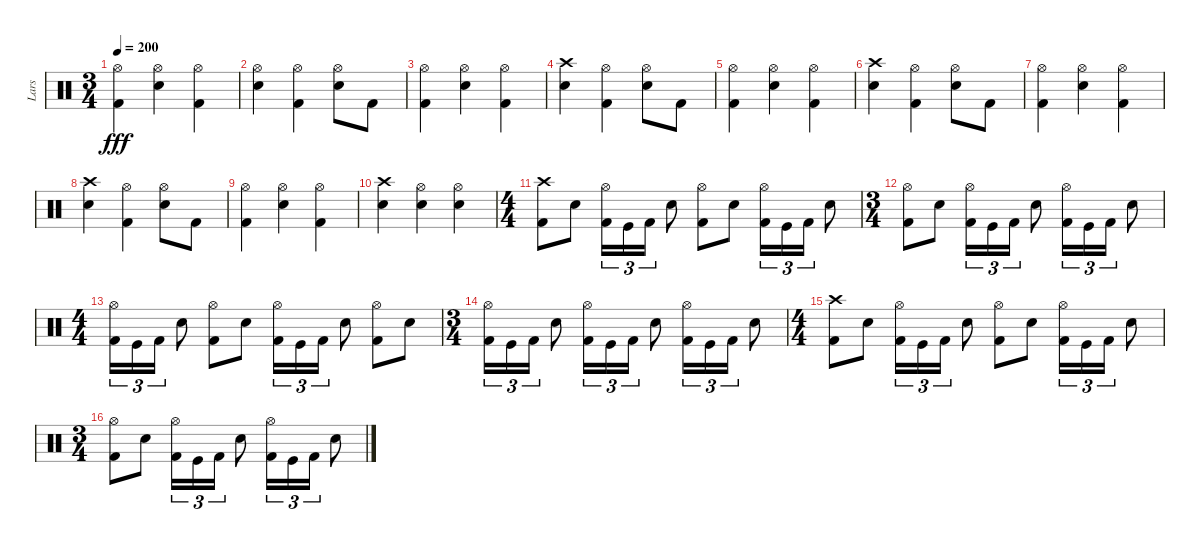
\track ("Lars" "Lars") {instrument percussion}
\staff {score}
\articulation defaults
\ts (3 4)
\tempo 200
\clef neutral
\ks c
("Hi-Hat (open)" "Kick (hit) 2").4{dy fff} ("Hi-Hat (open)" "Snare (hit) 2").4 ("Hi-Hat (open)" "Kick (hit) 2").4 |
("Hi-Hat (open)" "Snare (hit) 2").4 ("Hi-Hat (open)" "Kick (hit) 2").4 ("Hi-Hat (open)" "Snare (hit) 2").8 "Kick (hit) 2".8 |
("Hi-Hat (open)" "Kick (hit) 2").4 ("Hi-Hat (open)" "Snare (hit) 2").4 ("Hi-Hat (open)" "Kick (hit) 2").4 |
("Crash high (hit)" "Snare (hit) 2").4 ("Hi-Hat (open)" "Kick (hit) 2").4 ("Hi-Hat (open)" "Snare (hit) 2").8 "Kick (hit) 2".8 |
("Hi-Hat (open)" "Kick (hit) 2").4 ("Hi-Hat (open)" "Snare (hit) 2").4 ("Hi-Hat (open)" "Kick (hit) 2").4 |
("Crash high (hit)" "Snare (hit) 2").4 ("Hi-Hat (open)" "Kick (hit) 2").4 ("Hi-Hat (open)" "Snare (hit) 2").8 "Kick (hit) 2".8 |
("Hi-Hat (open)" "Kick (hit) 2").4 ("Hi-Hat (open)" "Snare (hit) 2").4 ("Hi-Hat (open)" "Kick (hit) 2").4 |
("Crash high (hit)" "Snare (hit) 2").4 ("Hi-Hat (open)" "Kick (hit) 2").4 ("Hi-Hat (open)" "Snare (hit) 2").8 "Kick (hit) 2".8 |
("Hi-Hat (open)" "Kick (hit) 2").4 ("Hi-Hat (open)" "Snare (hit) 2").4 ("Hi-Hat (open)" "Kick (hit) 2").4 |
("Crash high (hit)" "Snare (hit) 2").4 ("Hi-Hat (open)" "Snare (hit) 2").4 ("Hi-Hat (open)" "Snare (hit) 2").4 |
\ts (4 4)
("Crash high (hit)" "Kick (hit) 2").8 "Snare (hit) 2".8 ("Hi-Hat (open)" "Kick (hit) 2").16{tu (3 2)} "Kick (hit)".16{tu (3 2)} "Kick (hit) 2".16{tu (3 2)} "Snare (hit) 2".8 ("Hi-Hat (open)" "Kick (hit) 2").8 "Snare (hit) 2".8 ("Hi-Hat (open)" "Kick (hit) 2").16{tu (3 2)} "Kick (hit)".16{tu (3 2)} "Kick (hit) 2".16{tu (3 2)} "Snare (hit) 2".8 |
\ts (3 4)
("Hi-Hat (open)" "Kick (hit) 2").8 "Snare (hit) 2".8 ("Hi-Hat (open)" "Kick (hit) 2").16{tu (3 2)} "Kick (hit)".16{tu (3 2)} "Kick (hit) 2".16{tu (3 2)} "Snare (hit) 2".8 ("Hi-Hat (open)" "Kick (hit) 2").16{tu (3 2)} "Kick (hit)".16{tu (3 2)} "Kick (hit) 2".16{tu (3 2)} "Snare (hit) 2".8 |
\ts (4 4)
("Hi-Hat (open)" "Kick (hit) 2").16{tu (3 2)} "Kick (hit)".16{tu (3 2)} "Kick (hit) 2".16{tu (3 2)} "Snare (hit) 2".8 ("Hi-Hat (open)" "Kick (hit) 2").8 "Snare (hit) 2".8 ("Hi-Hat (open)" "Kick (hit) 2").16{tu (3 2)} "Kick (hit)".16{tu (3 2)} "Kick (hit) 2".16{tu (3 2)} "Snare (hit) 2".8 ("Hi-Hat (open)" "Kick (hit) 2").8 "Snare (hit) 2".8 |
\ts (3 4)
("Hi-Hat (open)" "Kick (hit) 2").16{tu (3 2)} "Kick (hit)".16{tu (3 2)} "Kick (hit) 2".16{tu (3 2)} "Snare (hit) 2".8 ("Hi-Hat (open)" "Kick (hit) 2").16{tu (3 2)} "Kick (hit)".16{tu (3 2)} "Kick (hit) 2".16{tu (3 2)} "Snare (hit) 2".8 ("Hi-Hat (open)" "Kick (hit) 2").16{tu (3 2)} "Kick (hit)".16{tu (3 2)} "Kick (hit) 2".16{tu (3 2)} "Snare (hit) 2".8 |
\ts (4 4)
("Crash high (hit)" "Kick (hit) 2").8 "Snare (hit) 2".8 ("Hi-Hat (open)" "Kick (hit) 2").16{tu (3 2)} "Kick (hit)".16{tu (3 2)} "Kick (hit) 2".16{tu (3 2)} "Snare (hit) 2".8 ("Hi-Hat (open)" "Kick (hit) 2").8 "Snare (hit) 2".8 ("Hi-Hat (open)" "Kick (hit) 2").16{tu (3 2)} "Kick (hit)".16{tu (3 2)} "Kick (hit) 2".16{tu (3 2)} "Snare (hit) 2".8 |
\ts (3 4)
("Hi-Hat (open)" "Kick (hit) 2").8 "Snare (hit) 2".8 ("Hi-Hat (open)" "Kick (hit) 2").16{tu (3 2)} "Kick (hit)".16{tu (3 2)} "Kick (hit) 2".16{tu (3 2)} "Snare (hit) 2".8 ("Hi-Hat (open)" "Kick (hit) 2").16{tu (3 2)} "Kick (hit)".16{tu (3 2)} "Kick (hit) 2".16{tu (3 2)} "Snare (hit) 2".8
